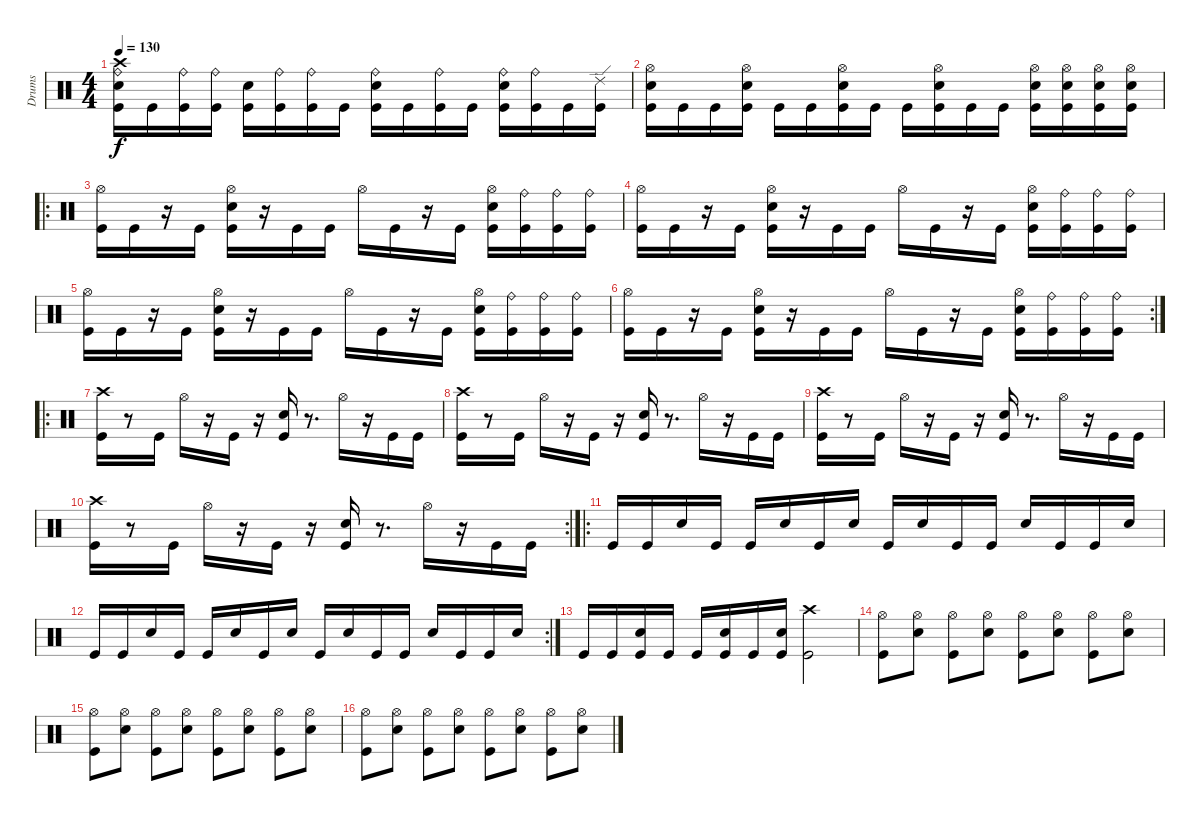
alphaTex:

\track ("Drums" "Drums") {instrument percussion}
\staff {score}
\articulation defaults
\ts (4 4)
\tempo 130
\clef neutral
\ks c
("Crash high (hit)" "Electric Snare (hit)" "Kick (hit)" "Ride (bell)").16{dy f} "Kick (hit)".16 ("Kick (hit)" "Ride (bell)").16 ("Kick (hit)" "Ride (bell)").16 ("Electric Snare (hit)" "Kick (hit)").16 ("Kick (hit)" "Ride (bell)").16 ("Kick (hit)" "Ride (bell)").16 "Kick (hit)".16 ("Electric Snare (hit)" "Kick (hit)" "Ride (bell)").16 "Kick (hit)".16 ("Kick (hit)" "Ride (bell)").16 "Kick (hit)".16 ("Electric Snare (hit)" "Kick (hit)" "Ride (bell)").16 ("Kick (hit)" "Ride (bell)").16 "Kick (hit)".16 ("Kick (hit)" "Ride (edge) 2").16 |
("Kick (hit)" "Hi-Hat (open)" "Electric Snare (hit)").16 "Kick (hit)".16 "Kick (hit)".16 ("Kick (hit)" "Electric Snare (hit)" "Hi-Hat (open)").16 "Kick (hit)".16 "Kick (hit)".16 ("Kick (hit)" "Electric Snare (hit)" "Hi-Hat (open)").16 "Kick (hit)".16 "Kick (hit)".16 ("Kick (hit)" "Electric Snare (hit)" "Hi-Hat (open)").16 "Kick (hit)".16 "Kick (hit)".16 ("Kick (hit)" "Electric Snare (hit)" "Hi-Hat (open)").16 ("Kick (hit)" "Electric Snare (hit)" "Hi-Hat (open)").16 ("Kick (hit)" "Electric Snare (hit)" "Hi-Hat (open)").16 ("Kick (hit)" "Electric Snare (hit)" "Hi-Hat (open)").16 |
\ro
("Hi-Hat (open)" "Kick (hit)").16 "Kick (hit)".16 r.16 "Kick (hit)".16 ("Electric Snare (hit)" "Hi-Hat (open)" "Kick (hit)").16 r.16 "Kick (hit)".16 "Kick (hit)".16 "Hi-Hat (open)".16 "Kick (hit)".16 r.16 "Kick (hit)".16 ("Electric Snare (hit)" "Hi-Hat (open)" "Kick (hit)").16 ("Ride (bell)" "Kick (hit)").16 ("Ride (bell)" "Kick (hit)").16 ("Ride (bell)" "Kick (hit)").16 |
("Hi-Hat (open)" "Kick (hit)").16 "Kick (hit)".16 r.16 "Kick (hit)".16 ("Electric Snare (hit)" "Hi-Hat (open)" "Kick (hit)").16 r.16 "Kick (hit)".16 "Kick (hit)".16 "Hi-Hat (open)".16 "Kick (hit)".16 r.16 "Kick (hit)".16 ("Electric Snare (hit)" "Hi-Hat (open)" "Kick (hit)").16 ("Ride (bell)" "Kick (hit)").16 ("Ride (bell)" "Kick (hit)").16 ("Ride (bell)" "Kick (hit)").16 |
("Hi-Hat (open)" "Kick (hit)").16 "Kick (hit)".16 r.16 "Kick (hit)".16 ("Electric Snare (hit)" "Hi-Hat (open)" "Kick (hit)").16 r.16 "Kick (hit)".16 "Kick (hit)".16 "Hi-Hat (open)".16 "Kick (hit)".16 r.16 "Kick (hit)".16 ("Electric Snare (hit)" "Hi-Hat (open)" "Kick (hit)").16 ("Ride (bell)" "Kick (hit)").16 ("Ride (bell)" "Kick (hit)").16 ("Ride (bell)" "Kick (hit)").16 |
\rc 2
("Hi-Hat (open)" "Kick (hit)").16 "Kick (hit)".16 r.16 "Kick (hit)".16 ("Electric Snare (hit)" "Hi-Hat (open)" "Kick (hit)").16 r.16 "Kick (hit)".16 "Kick (hit)".16 "Hi-Hat (open)".16 "Kick (hit)".16 r.16 "Kick (hit)".16 ("Electric Snare (hit)" "Hi-Hat (open)" "Kick (hit)").16 ("Ride (bell)" "Kick (hit)").16 ("Ride (bell)" "Kick (hit)").16 ("Ride (bell)" "Kick (hit)").16 |
\ro
("Crash high (hit)" "Kick (hit)").16 r.8 "Kick (hit)".16 "Hi-Hat (open)".16 r.16 "Kick (hit)".16 r.16 ("Electric Snare (hit)" "Kick (hit)").16 r.8{d} "Hi-Hat (open)".16 r.16 "Kick (hit)".16 "Kick (hit)".16 |
("Crash high (hit)" "Kick (hit)").16 r.8 "Kick (hit)".16 "Hi-Hat (open)".16 r.16 "Kick (hit)".16 r.16 ("Electric Snare (hit)" "Kick (hit)").16 r.8{d} "Hi-Hat (open)".16 r.16 "Kick (hit)".16 "Kick (hit)".16 |
("Crash high (hit)" "Kick (hit)").16 r.8 "Kick (hit)".16 "Hi-Hat (open)".16 r.16 "Kick (hit)".16 r.16 ("Electric Snare (hit)" "Kick (hit)").16 r.8{d} "Hi-Hat (open)".16 r.16 "Kick (hit)".16 "Kick (hit)".16 |
\rc 2
("Crash high (hit)" "Kick (hit)").16 r.8 "Kick (hit)".16 "Hi-Hat (open)".16 r.16 "Kick (hit)".16 r.16 ("Electric Snare (hit)" "Kick (hit)").16 r.8{d} "Hi-Hat (open)".16 r.16 "Kick (hit)".16 "Kick (hit)".16 |
\ro "Kick (hit)".16 "Kick (hit)".16 "Electric Snare (hit)".16 "Kick (hit)".16 "Kick (hit)".16 "Electric Snare (hit)".16 "Kick (hit)".16 "Electric Snare (hit)".16 "Kick (hit)".16 "Electric Snare (hit)".16 "Kick (hit)".16 "Kick (hit)".16 "Electric Snare (hit)".16 "Kick (hit)".16 "Kick (hit)".16 "Electric Snare (hit)".16
|
\rc 2 "Kick (hit)".16 "Kick (hit)".16 "Electric Snare (hit)".16 "Kick (hit)".16 "Kick (hit)".16 "Electric Snare (hit)".16 "Kick (hit)".16 "Electric Snare (hit)".16 "Kick (hit)".16 "Electric Snare (hit)".16 "Kick (hit)".16 "Kick (hit)".16 "Electric Snare (hit)".16 "Kick (hit)".16 "Kick (hit)".16 "Electric Snare (hit)".16
|
"Kick (hit)".16 "Kick (hit)".16 ("Kick (hit)" "Electric Snare (hit)").16 "Kick (hit)".16 "Kick (hit)".16 ("Kick (hit)" "Electric Snare (hit)").16 "Kick (hit)".16 ("Kick (hit)" "Electric Snare (hit)").16 ("Crash high (hit)" "Kick (hit)").2 |
("Hi-Hat (open)" "Kick (hit)").8 ("Hi-Hat (open)" "Electric Snare (hit)").8 ("Hi-Hat (open)" "Kick (hit)").8 ("Hi-Hat (open)" "Electric Snare (hit)").8 ("Hi-Hat (open)" "Kick (hit)").8 ("Hi-Hat (open)" "Electric Snare (hit)").8 ("Hi-Hat (open)" "Kick (hit)").8 ("Hi-Hat (open)" "Electric Snare (hit)").8 |
("Hi-Hat (open)" "Kick (hit)").8 ("Hi-Hat (open)" "Electric Snare (hit)").8 ("Hi-Hat (open)" "Kick (hit)").8 ("Hi-Hat (open)" "Electric Snare (hit)").8 ("Hi-Hat (open)" "Kick (hit)").8 ("Hi-Hat (open)" "Electric Snare (hit)").8 ("Hi-Hat (open)" "Kick (hit)").8 ("Hi-Hat (open)" "Electric Snare (hit)").8 |
("Hi-Hat (open)" "Kick (hit)").8 ("Hi-Hat (open)" "Electric Snare (hit)").8 ("Hi-Hat (open)" "Kick (hit)").8 ("Hi-Hat (open)" "Electric Snare (hit)").8 ("Hi-Hat (open)" "Kick (hit)").8 ("Hi-Hat (open)" "Electric Snare (hit)").8 ("Hi-Hat (open)" "Kick (hit)").8 ("Hi-Hat (open)" "Electric Snare (hit)").8
